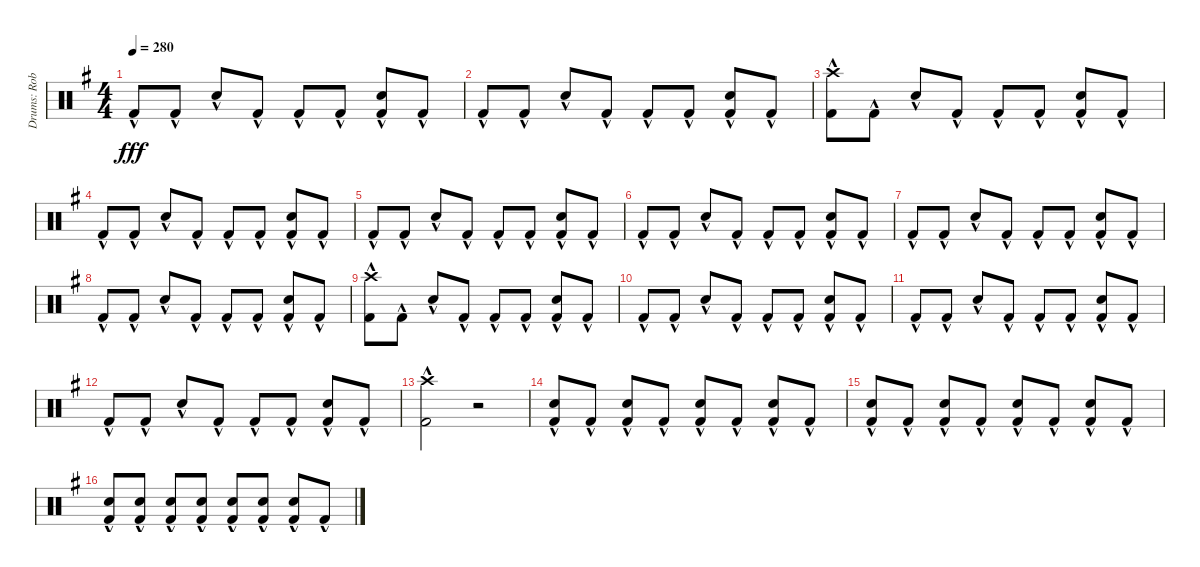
\track ("Drums: Rob" "Drums: Rob") {instrument percussion}
\staff {score}
\articulation defaults
\ts (4 4)
\tempo 280
\clef neutral
\ks g "Kick (hit) 2"{hac}.8{dy fff} "Kick (hit) 2"{hac}.8 "Snare (hit) 2"{hac}.8 "Kick (hit) 2"{hac}.8 "Kick (hit) 2"{hac}.8 "Kick (hit) 2"{hac}.8
("Snare (hit) 2"{hac} "Kick (hit) 2"{hac}).8 "Kick (hit) 2"{hac}.8 |
"Kick (hit) 2"{hac}.8 "Kick (hit) 2"{hac}.8 "Snare (hit) 2"{hac}.8 "Kick (hit) 2"{hac}.8 "Kick (hit) 2"{hac}.8 "Kick (hit) 2"{hac}.8 ("Snare (hit) 2"{hac} "Kick (hit) 2"{hac}).8 "Kick (hit) 2"{hac}.8 |
("Crash high (hit)"{hac} "Kick (hit) 2"{hac}).8 "Kick (hit) 2"{hac}.8 "Snare (hit) 2"{hac}.8 "Kick (hit) 2"{hac}.8 "Kick (hit) 2"{hac}.8 "Kick (hit) 2"{hac}.8 ("Snare (hit) 2"{hac} "Kick (hit) 2"{hac}).8 "Kick (hit) 2"{hac}.8 |
"Kick (hit) 2"{hac}.8 "Kick (hit) 2"{hac}.8 "Snare (hit) 2"{hac}.8 "Kick (hit) 2"{hac}.8 "Kick (hit) 2"{hac}.8 "Kick (hit) 2"{hac}.8 ("Snare (hit) 2"{hac} "Kick (hit) 2"{hac}).8 "Kick (hit) 2"{hac}.8 |
"Kick (hit) 2"{hac}.8 "Kick (hit) 2"{hac}.8 "Snare (hit) 2"{hac}.8 "Kick (hit) 2"{hac}.8 "Kick (hit) 2"{hac}.8 "Kick (hit) 2"{hac}.8 ("Snare (hit) 2"{hac} "Kick (hit) 2"{hac}).8 "Kick (hit) 2"{hac}.8 |
"Kick (hit) 2"{hac}.8 "Kick (hit) 2"{hac}.8 "Snare (hit) 2"{hac}.8 "Kick (hit) 2"{hac}.8 "Kick (hit) 2"{hac}.8 "Kick (hit) 2"{hac}.8 ("Snare (hit) 2"{hac} "Kick (hit) 2"{hac}).8 "Kick (hit) 2"{hac}.8 |
"Kick (hit) 2"{hac}.8 "Kick (hit) 2"{hac}.8 "Snare (hit) 2"{hac}.8 "Kick (hit) 2"{hac}.8 "Kick (hit) 2"{hac}.8 "Kick (hit) 2"{hac}.8 ("Snare (hit) 2"{hac} "Kick (hit) 2"{hac}).8 "Kick (hit) 2"{hac}.8 |
"Kick (hit) 2"{hac}.8 "Kick (hit) 2"{hac}.8 "Snare (hit) 2"{hac}.8 "Kick (hit) 2"{hac}.8 "Kick (hit) 2"{hac}.8 "Kick (hit) 2"{hac}.8 ("Snare (hit) 2"{hac} "Kick (hit) 2"{hac}).8 "Kick (hit) 2"{hac}.8 |
("Crash high (hit)"{hac} "Kick (hit) 2"{hac}).8 "Kick (hit) 2"{hac}.8 "Snare (hit) 2"{hac}.8 "Kick (hit) 2"{hac}.8 "Kick (hit) 2"{hac}.8 "Kick (hit) 2"{hac}.8 ("Snare (hit) 2"{hac} "Kick (hit) 2"{hac}).8 "Kick (hit) 2"{hac}.8 |
"Kick (hit) 2"{hac}.8 "Kick (hit) 2"{hac}.8 "Snare (hit) 2"{hac}.8 "Kick (hit) 2"{hac}.8 "Kick (hit) 2"{hac}.8 "Kick (hit) 2"{hac}.8 ("Snare (hit) 2"{hac} "Kick (hit) 2"{hac}).8 "Kick (hit) 2"{hac}.8 |
"Kick (hit) 2"{hac}.8 "Kick (hit) 2"{hac}.8 "Snare (hit) 2"{hac}.8 "Kick (hit) 2"{hac}.8 "Kick (hit) 2"{hac}.8 "Kick (hit) 2"{hac}.8 ("Snare (hit) 2"{hac} "Kick (hit) 2"{hac}).8 "Kick (hit) 2"{hac}.8 |
"Kick (hit) 2"{hac}.8 "Kick (hit) 2"{hac}.8 "Snare (hit) 2"{hac}.8 "Kick (hit) 2"{hac}.8 "Kick (hit) 2"{hac}.8 "Kick (hit) 2"{hac}.8 ("Snare (hit) 2"{hac} "Kick (hit) 2"{hac}).8 "Kick (hit) 2"{hac}.8 |
("Crash high (hit)" "Kick (hit) 2"{hac}).2 r.2 |
("Snare (hit) 2"{hac} "Kick (hit) 2").8 "Kick (hit) 2"{hac}.8 ("Snare (hit) 2" "Kick (hit) 2"{hac}).8 "Kick (hit) 2"{hac}.8 ("Snare (hit) 2"{hac} "Kick (hit) 2"{hac}).8 "Kick (hit) 2"{hac}.8 ("Snare (hit) 2"{hac} "Kick (hit) 2").8 "Kick (hit) 2"{hac}.8 |
("Snare (hit) 2"{hac} "Kick (hit) 2").8 "Kick (hit) 2"{hac}.8 ("Snare (hit) 2" "Kick (hit) 2"{hac}).8 "Kick (hit) 2"{hac}.8 ("Snare (hit) 2"{hac} "Kick (hit) 2"{hac}).8 "Kick (hit) 2"{hac}.8 ("Snare (hit) 2"{hac} "Kick (hit) 2").8 "Kick (hit) 2"{hac}.8 |
("Snare (hit) 2"{hac} "Kick (hit) 2").8 ("Snare (hit) 2" "Kick (hit) 2"{hac}).8 ("Snare (hit) 2" "Kick (hit) 2"{hac}).8 ("Snare (hit) 2" "Kick (hit) 2"{hac}).8 ("Snare (hit) 2"{hac} "Kick (hit) 2"{hac}).8 ("Snare (hit) 2" "Kick (hit) 2"{hac}).8 ("Snare (hit) 2"{hac} "Kick (hit) 2").8 "Kick (hit) 2"{hac}.8
